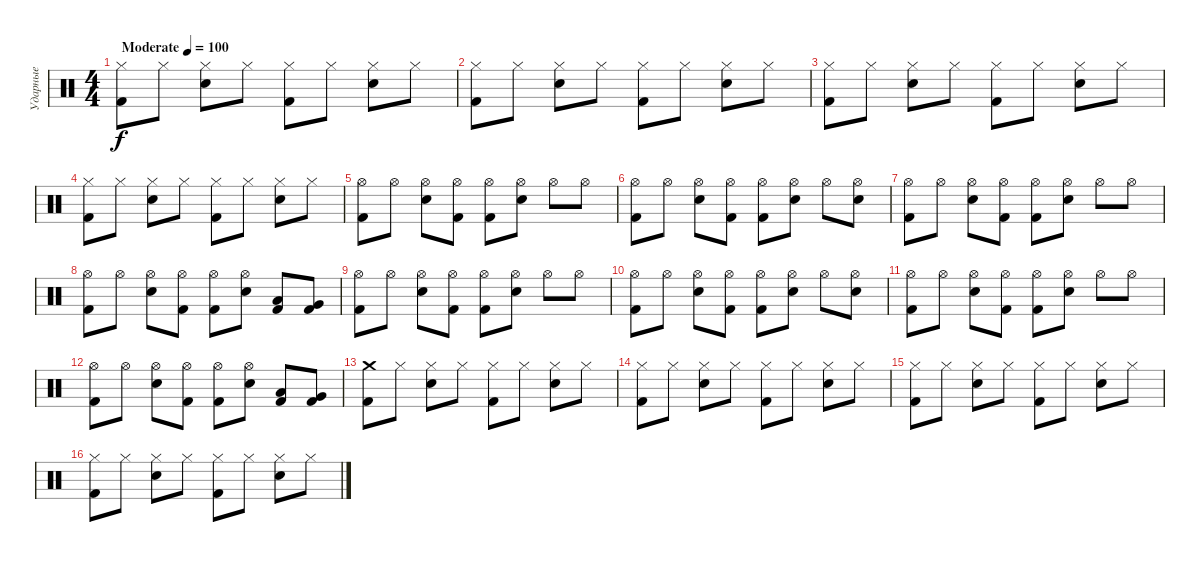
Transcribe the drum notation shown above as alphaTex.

\track ("Ударные" "Ударные") {instrument percussion}
\staff {score}
\articulation defaults
\ts (4 4)
\tempo (100 "Moderate")
\clef neutral
\ks c
("Kick (hit) 2" "Hi-Hat (closed)").8{dy f} "Hi-Hat (closed)".8 ("Electric Snare (hit)" "Hi-Hat (closed)").8 "Hi-Hat (closed)".8 ("Kick (hit) 2" "Hi-Hat (closed)").8 "Hi-Hat (closed)".8 ("Electric Snare (hit)" "Hi-Hat (closed)").8 "Hi-Hat (closed)".8 |
("Kick (hit) 2" "Hi-Hat (closed)").8 "Hi-Hat (closed)".8 ("Electric Snare (hit)" "Hi-Hat (closed)").8 "Hi-Hat (closed)".8 ("Kick (hit) 2" "Hi-Hat (closed)").8 "Hi-Hat (closed)".8 ("Electric Snare (hit)" "Hi-Hat (closed)").8 "Hi-Hat (closed)".8 |
("Kick (hit) 2" "Hi-Hat (closed)").8 "Hi-Hat (closed)".8 ("Electric Snare (hit)" "Hi-Hat (closed)").8 "Hi-Hat (closed)".8 ("Kick (hit) 2" "Hi-Hat (closed)").8 "Hi-Hat (closed)".8 ("Electric Snare (hit)" "Hi-Hat (closed)").8 "Hi-Hat (closed)".8 |
("Kick (hit) 2" "Hi-Hat (closed)").8 "Hi-Hat (closed)".8 ("Electric Snare (hit)" "Hi-Hat (closed)").8 "Hi-Hat (closed)".8 ("Kick (hit) 2" "Hi-Hat (closed)").8 "Hi-Hat (closed)".8 ("Electric Snare (hit)" "Hi-Hat (closed)").8 "Hi-Hat (closed)".8 |
("Kick (hit) 2" "Hi-Hat (open)").8 "Hi-Hat (open)".8 ("Electric Snare (hit)" "Hi-Hat (open)").8 ("Kick (hit) 2" "Hi-Hat (open)").8 ("Kick (hit) 2" "Hi-Hat (open)").8 ("Electric Snare (hit)" "Hi-Hat (open)").8 "Hi-Hat (open)".8 "Hi-Hat (open)".8 |
("Kick (hit) 2" "Hi-Hat (open)").8 "Hi-Hat (open)".8 ("Electric Snare (hit)" "Hi-Hat (open)").8 ("Kick (hit) 2" "Hi-Hat (open)").8 ("Kick (hit) 2" "Hi-Hat (open)").8 ("Electric Snare (hit)" "Hi-Hat (open)").8 "Hi-Hat (open)".8 ("Electric Snare (hit)" "Hi-Hat (open)").8 |
("Kick (hit) 2" "Hi-Hat (open)").8 "Hi-Hat (open)".8 ("Electric Snare (hit)" "Hi-Hat (open)").8 ("Kick (hit) 2" "Hi-Hat (open)").8 ("Kick (hit) 2" "Hi-Hat (open)").8 ("Electric Snare (hit)" "Hi-Hat (open)").8 "Hi-Hat (open)".8 "Hi-Hat (open)".8 |
("Kick (hit) 2" "Hi-Hat (open)").8 "Hi-Hat (open)".8 ("Electric Snare (hit)" "Hi-Hat (open)").8 ("Kick (hit) 2" "Hi-Hat (open)").8 ("Kick (hit) 2" "Hi-Hat (open)").8 ("Electric Snare (hit)" "Hi-Hat (open)").8 ("Low Tom (hit)" "Kick (hit) 2").8 ("Very Low Tom (hit)" "Kick (hit) 2").8 |
("Kick (hit) 2" "Hi-Hat (open)").8 "Hi-Hat (open)".8 ("Electric Snare (hit)" "Hi-Hat (open)").8 ("Kick (hit) 2" "Hi-Hat (open)").8 ("Kick (hit) 2" "Hi-Hat (open)").8 ("Electric Snare (hit)" "Hi-Hat (open)").8 "Hi-Hat (open)".8 "Hi-Hat (open)".8 |
("Kick (hit) 2" "Hi-Hat (open)").8 "Hi-Hat (open)".8 ("Electric Snare (hit)" "Hi-Hat (open)").8 ("Kick (hit) 2" "Hi-Hat (open)").8 ("Kick (hit) 2" "Hi-Hat (open)").8 ("Electric Snare (hit)" "Hi-Hat (open)").8 "Hi-Hat (open)".8 ("Electric Snare (hit)" "Hi-Hat (open)").8 |
("Kick (hit) 2" "Hi-Hat (open)").8 "Hi-Hat (open)".8 ("Electric Snare (hit)" "Hi-Hat (open)").8 ("Kick (hit) 2" "Hi-Hat (open)").8 ("Kick (hit) 2" "Hi-Hat (open)").8 ("Electric Snare (hit)" "Hi-Hat (open)").8 "Hi-Hat (open)".8 "Hi-Hat (open)".8 |
("Kick (hit) 2" "Hi-Hat (open)").8 "Hi-Hat (open)".8 ("Electric Snare (hit)" "Hi-Hat (open)").8 ("Kick (hit) 2" "Hi-Hat (open)").8 ("Kick (hit) 2" "Hi-Hat (open)").8 ("Electric Snare (hit)" "Hi-Hat (open)").8 ("Low Tom (hit)" "Kick (hit) 2").8 ("Very Low Tom (hit)" "Kick (hit) 2").8 |
("Kick (hit) 2" "Crash medium (hit)").8 "Hi-Hat (closed)".8 ("Electric Snare (hit)" "Hi-Hat (closed)").8 "Hi-Hat (closed)".8 ("Kick (hit) 2" "Hi-Hat (closed)").8 "Hi-Hat (closed)".8 ("Electric Snare (hit)" "Hi-Hat (closed)").8 "Hi-Hat (closed)".8 |
("Kick (hit) 2" "Hi-Hat (closed)").8 "Hi-Hat (closed)".8 ("Electric Snare (hit)" "Hi-Hat (closed)").8 "Hi-Hat (closed)".8 ("Kick (hit) 2" "Hi-Hat (closed)").8 "Hi-Hat (closed)".8 ("Electric Snare (hit)" "Hi-Hat (closed)").8 "Hi-Hat (closed)".8 |
("Kick (hit) 2" "Hi-Hat (closed)").8 "Hi-Hat (closed)".8 ("Electric Snare (hit)" "Hi-Hat (closed)").8 "Hi-Hat (closed)".8 ("Kick (hit) 2" "Hi-Hat (closed)").8 "Hi-Hat (closed)".8 ("Electric Snare (hit)" "Hi-Hat (closed)").8 "Hi-Hat (closed)".8 |
("Kick (hit) 2" "Hi-Hat (closed)").8 "Hi-Hat (closed)".8 ("Electric Snare (hit)" "Hi-Hat (closed)").8 "Hi-Hat (closed)".8 ("Kick (hit) 2" "Hi-Hat (closed)").8 "Hi-Hat (closed)".8 ("Electric Snare (hit)" "Hi-Hat (closed)").8 "Hi-Hat (closed)".8
